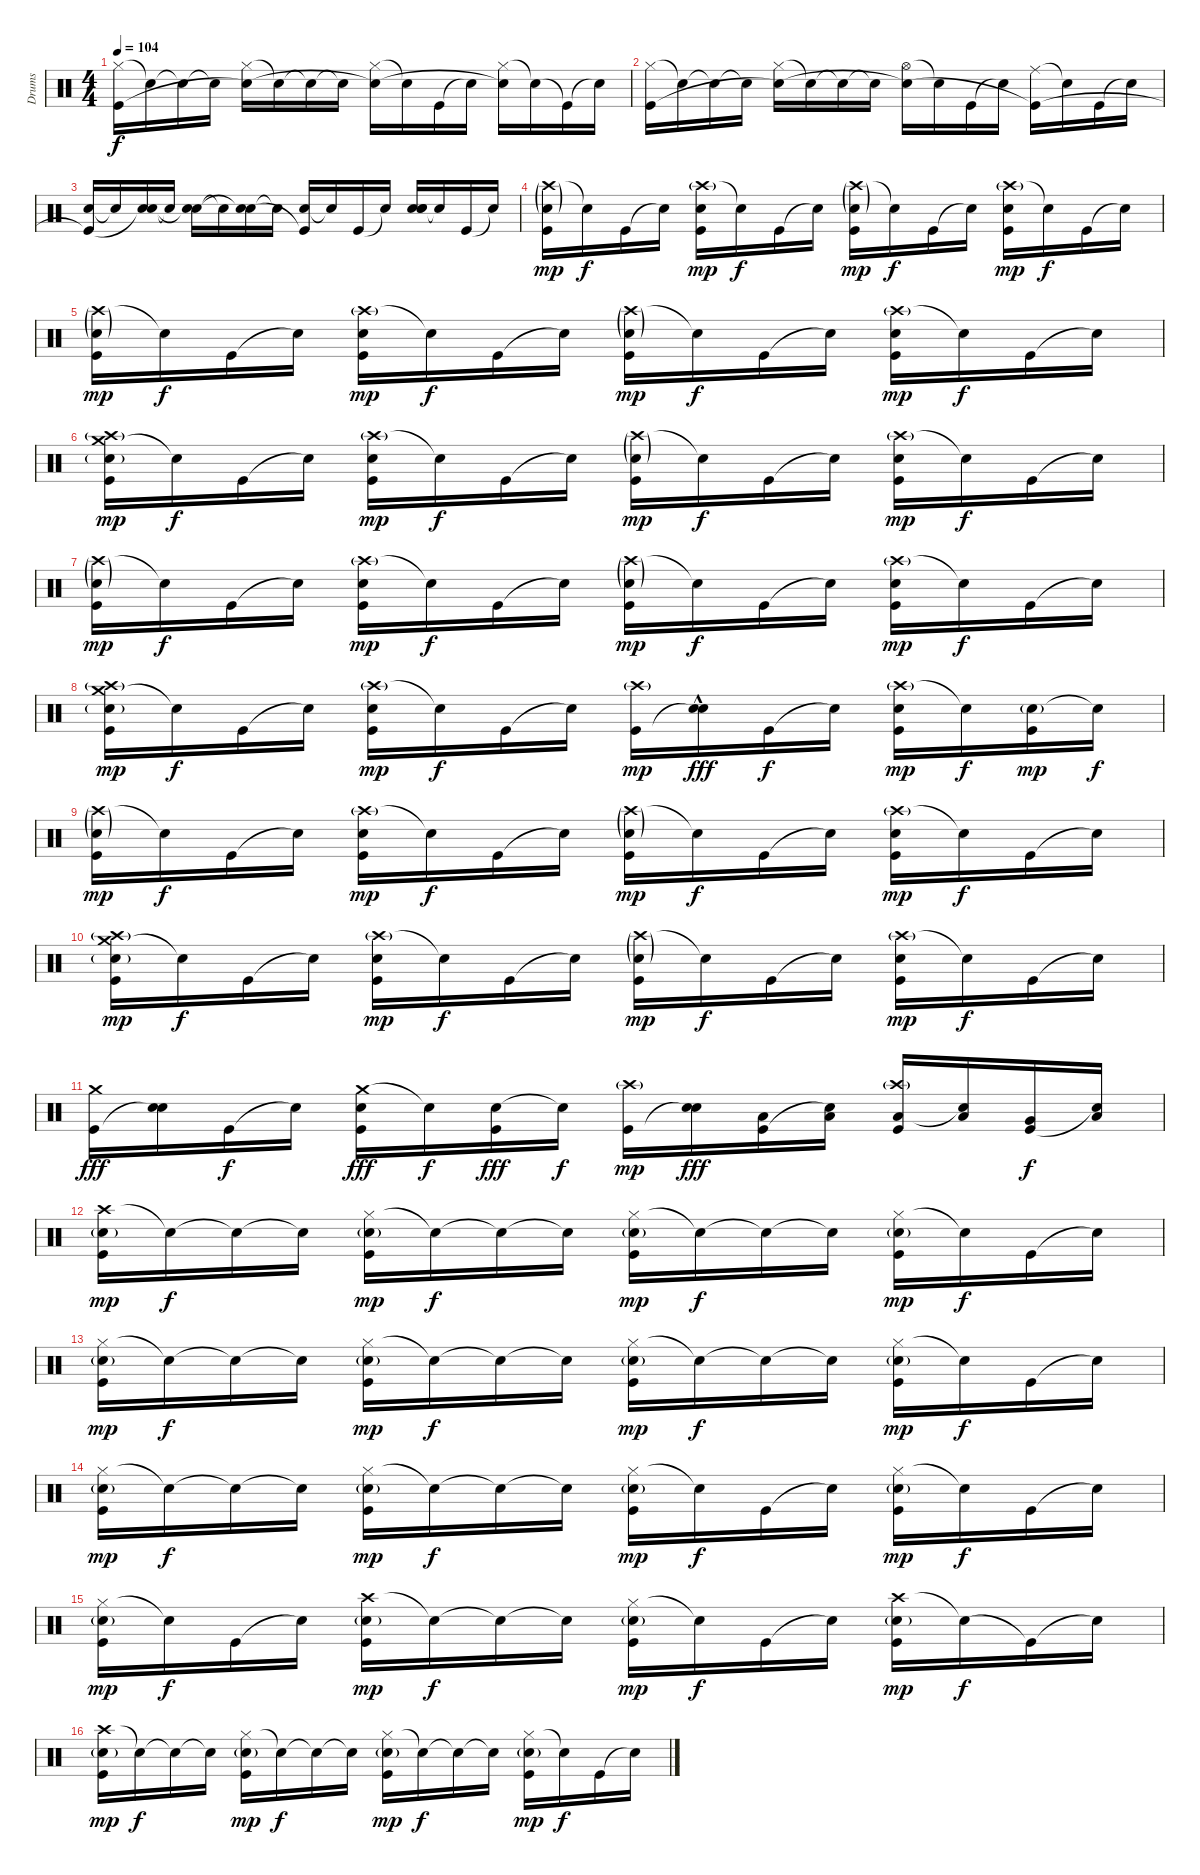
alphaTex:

\track ("Drums" "Drums") {instrument percussion}
\staff {score}
\articulation defaults
\ts (4 4)
\tempo 104
\clef neutral
\ks c
("Hi-Hat (closed)" "Kick (hit)").16{dy f} "Snare (hit)"{t}.16 "Snare (hit)"{t}.16 "Snare (hit)"{t}.16 ("Hi-Hat (closed)" "Snare (hit)"{t}).16 "Snare (hit)"{t}.16 "Snare (hit)"{t}.16 "Snare (hit)"{t}.16 ("Hi-Hat (closed)" "Snare (hit)"{t}).16 "Snare (hit)"{t}.16 "Kick (hit)".16 "Snare (hit)"{t}.16 ("Hi-Hat (closed)" "Snare (hit)"{t}).16 "Snare (hit)"{t}.16 "Kick (hit)"{t}.16 "Snare (hit)"{t}.16 |
("Hi-Hat (closed)" "Kick (hit)").16 "Snare (hit)"{t}.16 "Snare (hit)"{t}.16 "Snare (hit)"{t}.16 ("Hi-Hat (closed)" "Snare (hit)"{t}).16 "Snare (hit)"{t}.16 "Snare (hit)"{t}.16 "Snare (hit)"{t}.16 ("Hi-Hat (open)" "Snare (hit)"{t}).16 "Snare (hit)"{t}.16 "Kick (hit)".16 "Snare (hit)"{t}.16 ("Ride (middle)" "Kick (hit)"{t}).16 "Snare (hit)"{t}.16 "Kick (hit)".16 "Snare (hit)"{t}.16 |
("Electric Snare (hit)" "Kick (hit)"{t}).16 "Snare (hit)"{t}.16 ("Electric Snare (hit)" "Snare (hit)"{t}).16 "Snare (hit)"{t}.16 ("Electric Snare (hit)" "Snare (hit)"{t}).16 "Snare (hit)"{t}.16 ("Electric Snare (hit)" "Snare (hit)"{t}).16 "Snare (hit)"{t}.16 ("Electric Snare (hit)" "Kick (hit)"{t}).16 "Snare (hit)"{t}.16 "Kick (hit)".16 "Snare (hit)"{t}.16 ("Electric Snare (hit)" "Electric Snare (hit)" "Snare (hit)").16{bd 480} "Snare (hit)"{t}.16 "Kick (hit)".16 "Snare (hit)"{t}.16 |
("Crash high (hit)"{g} "Electric Snare (hit)"{g} "Kick (hit)").16{dy mp} "Snare (hit)"{t}.16{dy f} "Kick (hit)".16 "Snare (hit)"{t}.16 ("Crash high (hit)"{g} "Electric Snare (hit)" "Kick (hit)").16{dy mp} "Snare (hit)"{t}.16{dy f} "Kick (hit)".16 "Snare (hit)"{t}.16 ("Crash high (hit)"{g} "Electric Snare (hit)"{g} "Kick (hit)").16{dy mp} "Snare (hit)"{t}.16{dy f} "Kick (hit)".16 "Snare (hit)"{t}.16 ("Crash high (hit)"{g} "Electric Snare (hit)" "Kick (hit)").16{dy mp} "Snare (hit)"{t}.16{dy f} "Kick (hit)".16 "Snare (hit)"{t}.16 |
("Crash high (hit)"{g} "Electric Snare (hit)"{g} "Kick (hit)").16{dy mp} "Snare (hit)"{t}.16{dy f} "Kick (hit)".16 "Snare (hit)"{t}.16 ("Crash high (hit)"{g} "Electric Snare (hit)" "Kick (hit)").16{dy mp} "Snare (hit)"{t}.16{dy f} "Kick (hit)".16 "Snare (hit)"{t}.16 ("Crash high (hit)"{g} "Electric Snare (hit)"{g} "Kick (hit)").16{dy mp} "Snare (hit)"{t}.16{dy f} "Kick (hit)".16 "Snare (hit)"{t}.16 ("Crash high (hit)"{g} "Electric Snare (hit)" "Kick (hit)").16{dy mp} "Snare (hit)"{t}.16{dy f} "Kick (hit)".16 "Snare (hit)"{t}.16 |
("Crash medium (hit)" "Crash high (hit)"{g} "Electric Snare (hit)"{g} "Kick (hit)").16{dy mp} "Snare (hit)"{t}.16{dy f} "Kick (hit)".16 "Snare (hit)"{t}.16 ("Crash high (hit)"{g} "Electric Snare (hit)" "Kick (hit)").16{dy mp} "Snare (hit)"{t}.16{dy f} "Kick (hit)".16 "Snare (hit)"{t}.16 ("Crash high (hit)"{g} "Electric Snare (hit)"{g} "Kick (hit)").16{dy mp} "Snare (hit)"{t}.16{dy f} "Kick (hit)".16 "Snare (hit)"{t}.16 ("Crash high (hit)"{g} "Electric Snare (hit)" "Kick (hit)").16{dy mp} "Snare (hit)"{t}.16{dy f} "Kick (hit)".16 "Snare (hit)"{t}.16 |
("Crash high (hit)"{g} "Electric Snare (hit)"{g} "Kick (hit)").16{dy mp} "Snare (hit)"{t}.16{dy f} "Kick (hit)".16 "Snare (hit)"{t}.16 ("Crash high (hit)"{g} "Electric Snare (hit)" "Kick (hit)").16{dy mp} "Snare (hit)"{t}.16{dy f} "Kick (hit)".16 "Snare (hit)"{t}.16 ("Crash high (hit)"{g} "Electric Snare (hit)"{g} "Kick (hit)").16{dy mp} "Snare (hit)"{t}.16{dy f} "Kick (hit)".16 "Snare (hit)"{t}.16 ("Crash high (hit)"{g} "Electric Snare (hit)" "Kick (hit)").16{dy mp} "Snare (hit)"{t}.16{dy f} "Kick (hit)".16 "Snare (hit)"{t}.16 |
("Crash medium (hit)" "Crash high (hit)"{g} "Electric Snare (hit)"{g} "Kick (hit)").16{dy mp} "Snare (hit)"{t}.16{dy f} "Kick (hit)".16 "Snare (hit)"{t}.16 ("Crash high (hit)"{g} "Electric Snare (hit)" "Kick (hit)").16{dy mp} "Snare (hit)"{t}.16{dy f} "Kick (hit)".16 "Snare (hit)"{t}.16 ("Crash high (hit)"{g} "Kick (hit)").16{dy mp} ("Electric Snare (hit)"{hac} "Snare (hit)"{t}).16{dy fff} "Kick (hit)".16{dy f} "Snare (hit)"{t}.16 ("Crash high (hit)"{g} "Electric Snare (hit)" "Kick (hit)").16{dy mp} "Snare (hit)"{t}.16{dy f} ("Electric Snare (hit)"{g} "Kick (hit)").16{dy mp} "Snare (hit)"{t}.16{dy f} |
("Crash high (hit)"{g} "Electric Snare (hit)"{g} "Kick (hit)").16{dy mp} "Snare (hit)"{t}.16{dy f} "Kick (hit)".16 "Snare (hit)"{t}.16 ("Crash high (hit)"{g} "Electric Snare (hit)" "Kick (hit)").16{dy mp} "Snare (hit)"{t}.16{dy f} "Kick (hit)".16 "Snare (hit)"{t}.16 ("Crash high (hit)"{g} "Electric Snare (hit)"{g} "Kick (hit)").16{dy mp} "Snare (hit)"{t}.16{dy f} "Kick (hit)".16 "Snare (hit)"{t}.16 ("Crash high (hit)"{g} "Electric Snare (hit)" "Kick (hit)").16{dy mp} "Snare (hit)"{t}.16{dy f} "Kick (hit)".16 "Snare (hit)"{t}.16 |
("Crash medium (hit)" "Crash high (hit)"{g} "Electric Snare (hit)"{g} "Kick (hit)").16{dy mp} "Snare (hit)"{t}.16{dy f} "Kick (hit)".16 "Snare (hit)"{t}.16 ("Crash high (hit)"{g} "Electric Snare (hit)" "Kick (hit)").16{dy mp} "Snare (hit)"{t}.16{dy f} "Kick (hit)".16 "Snare (hit)"{t}.16 ("Crash high (hit)"{g} "Electric Snare (hit)"{g} "Kick (hit)").16{dy mp} "Snare (hit)"{t}.16{dy f} "Kick (hit)".16 "Snare (hit)"{t}.16 ("Crash high (hit)"{g} "Electric Snare (hit)" "Kick (hit)").16{dy mp} "Snare (hit)"{t}.16{dy f} "Kick (hit)".16 "Snare (hit)"{t}.16 |
("Crash medium (hit)" "Kick (hit)").16{dy fff} ("Electric Snare (hit)" "Snare (hit)"{t}).16 "Kick (hit)".16{dy f} "Snare (hit)"{t}.16 ("Crash medium (hit)" "Electric Snare (hit)" "Kick (hit)").16{dy fff} "Snare (hit)"{t}.16{dy f} ("Electric Snare (hit)" "Kick (hit)").16{dy fff} "Snare (hit)"{t}.16{dy f} ("Crash high (hit)"{g} "Kick (hit)").16{dy mp} ("Electric Snare (hit)" "Snare (hit)"{t}).16{dy fff} ("Low Tom (hit)" "Kick (hit)").16 ("Low Tom (hit)" "Snare (hit)"{t}).16 ("Crash high (hit)"{g} "Low Tom (hit)" "Kick (hit)").16 ("Low Tom (hit)" "Snare (hit)"{t}).16 ("Very Low Tom (hit)" "Kick (hit)").16{dy f} ("Low Floor Tom (hit)" "Snare (hit)"{t}).16 |
("Crash high (hit)" "Electric Snare (hit)"{g} "Kick (hit)").16{dy mp} "Snare (hit)"{t}.16{dy f} "Snare (hit)"{t}.16 "Snare (hit)"{t}.16 ("Hi-Hat (closed)" "Electric Snare (hit)"{g} "Kick (hit)").16{dy mp} "Snare (hit)"{t}.16{dy f} "Snare (hit)"{t}.16 "Snare (hit)"{t}.16 ("Hi-Hat (closed)" "Electric Snare (hit)"{g} "Kick (hit)").16{dy mp} "Snare (hit)"{t}.16{dy f} "Snare (hit)"{t}.16 "Snare (hit)"{t}.16 ("Hi-Hat (closed)" "Electric Snare (hit)"{g} "Kick (hit)").16{dy mp} "Snare (hit)"{t}.16{dy f} "Kick (hit)".16 "Snare (hit)"{t}.16 |
("Hi-Hat (closed)" "Electric Snare (hit)"{g} "Kick (hit)").16{dy mp} "Snare (hit)"{t}.16{dy f} "Snare (hit)"{t}.16 "Snare (hit)"{t}.16 ("Hi-Hat (closed)" "Electric Snare (hit)"{g} "Kick (hit)").16{dy mp} "Snare (hit)"{t}.16{dy f} "Snare (hit)"{t}.16 "Snare (hit)"{t}.16 ("Hi-Hat (closed)" "Electric Snare (hit)"{g} "Kick (hit)").16{dy mp} "Snare (hit)"{t}.16{dy f} "Snare (hit)"{t}.16 "Snare (hit)"{t}.16 ("Hi-Hat (closed)" "Electric Snare (hit)"{g} "Kick (hit)").16{dy mp} "Snare (hit)"{t}.16{dy f} "Kick (hit)".16 "Snare (hit)"{t}.16 |
("Hi-Hat (closed)" "Electric Snare (hit)"{g} "Kick (hit)").16{dy mp} "Snare (hit)"{t}.16{dy f} "Snare (hit)"{t}.16 "Snare (hit)"{t}.16 ("Hi-Hat (closed)" "Electric Snare (hit)"{g} "Kick (hit)").16{dy mp} "Snare (hit)"{t}.16{dy f} "Snare (hit)"{t}.16 "Snare (hit)"{t}.16 ("Hi-Hat (closed)" "Electric Snare (hit)"{g} "Kick (hit)").16{dy mp} "Snare (hit)"{t}.16{dy f} "Kick (hit)".16 "Snare (hit)"{t}.16 ("Hi-Hat (closed)" "Electric Snare (hit)"{g} "Kick (hit)").16{dy mp} "Snare (hit)"{t}.16{dy f} "Kick (hit)".16 "Snare (hit)"{t}.16 |
("Hi-Hat (closed)" "Electric Snare (hit)"{g} "Kick (hit)").16{dy mp} "Snare (hit)"{t}.16{dy f} "Kick (hit)".16 "Snare (hit)"{t}.16 ("Crash high (hit)" "Electric Snare (hit)"{g} "Kick (hit)").16{dy mp} "Snare (hit)"{t}.16{dy f} "Snare (hit)"{t}.16 "Snare (hit)"{t}.16 ("Hi-Hat (closed)" "Electric Snare (hit)"{g} "Kick (hit)").16{dy mp} "Snare (hit)"{t}.16{dy f} "Kick (hit)".16 "Snare (hit)"{t}.16 ("Crash high (hit)" "Electric Snare (hit)"{g} "Kick (hit)").16{dy mp} "Snare (hit)"{t}.16{dy f} "Kick (hit)"{t}.16 "Snare (hit)"{t}.16 |
("Crash high (hit)" "Electric Snare (hit)"{g} "Kick (hit)").16{dy mp} "Snare (hit)"{t}.16{dy f} "Snare (hit)"{t}.16 "Snare (hit)"{t}.16 ("Hi-Hat (closed)" "Electric Snare (hit)"{g} "Kick (hit)").16{dy mp} "Snare (hit)"{t}.16{dy f} "Snare (hit)"{t}.16 "Snare (hit)"{t}.16 ("Hi-Hat (closed)" "Electric Snare (hit)"{g} "Kick (hit)").16{dy mp} "Snare (hit)"{t}.16{dy f} "Snare (hit)"{t}.16 "Snare (hit)"{t}.16 ("Hi-Hat (closed)" "Electric Snare (hit)"{g} "Kick (hit)").16{dy mp} "Snare (hit)"{t}.16{dy f} "Kick (hit)".16 "Snare (hit)"{t}.16
